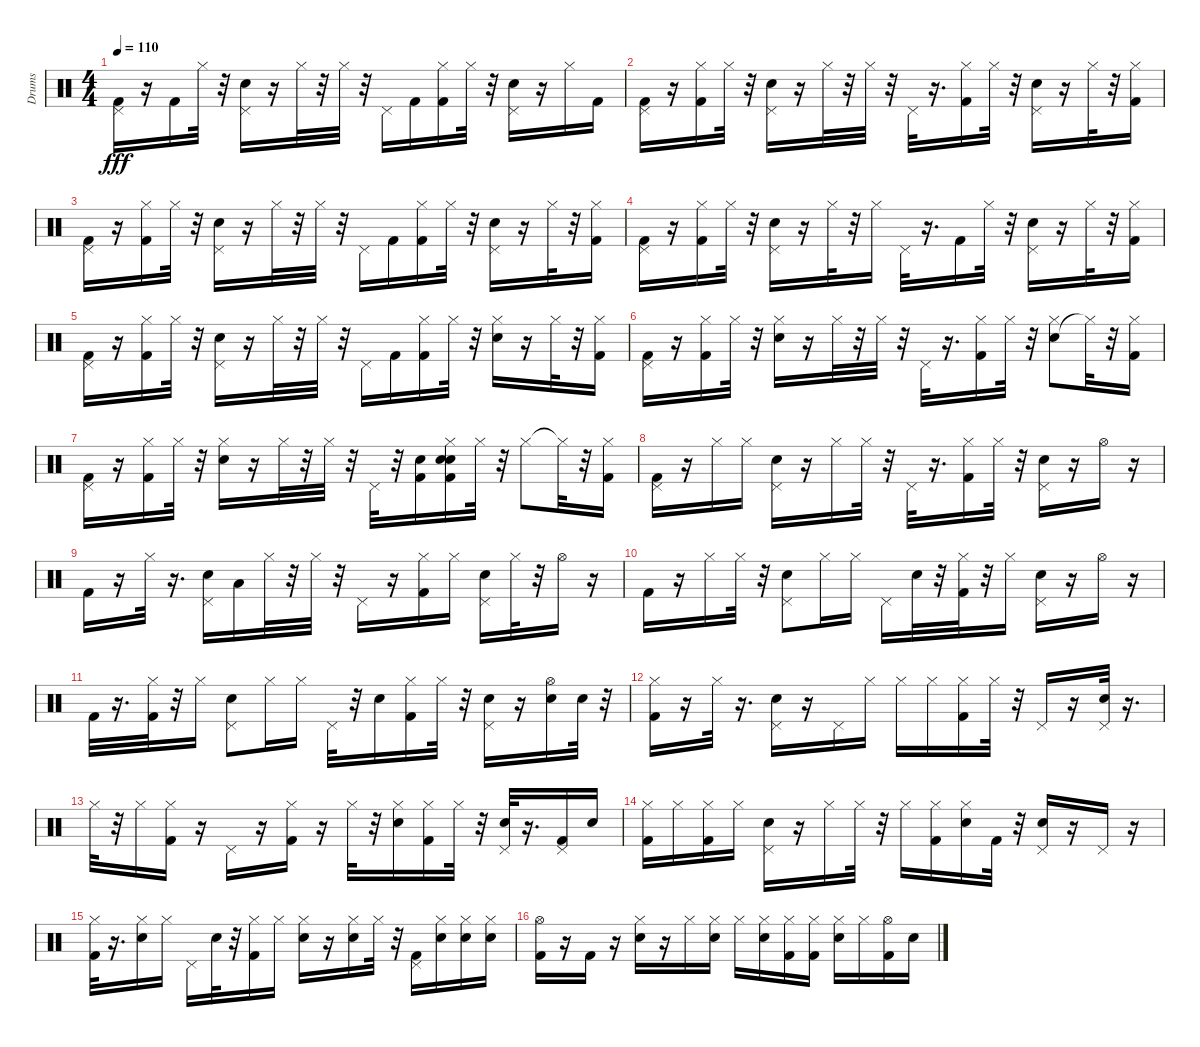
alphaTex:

\track ("Drums" "Drums") {instrument percussion}
\staff {score}
\articulation defaults
\ts (4 4)
\tempo 110
\clef neutral
\ks c
("Kick (hit) 2" "Pedal Hi-Hat (hit)").16{dy fff} r.16 "Kick (hit) 2".16 "Hi-Hat (closed)".32 r.32 ("Snare (hit) 2" "Pedal Hi-Hat (hit)").16 r.16 "Hi-Hat (closed)".32 r.32 "Hi-Hat (closed)".32 r.32 "Pedal Hi-Hat (hit)".16 "Kick (hit) 2".16 ("Kick (hit) 2" "Hi-Hat (closed)").16 "Hi-Hat (closed)".32 r.32 ("Snare (hit) 2" "Pedal Hi-Hat (hit)").16 r.16 "Hi-Hat (closed)".16 "Kick (hit) 2".16 |
("Kick (hit) 2" "Pedal Hi-Hat (hit)").16 r.16 ("Kick (hit) 2" "Hi-Hat (closed)").16 "Hi-Hat (closed)".32 r.32 ("Snare (hit) 2" "Pedal Hi-Hat (hit)").16 r.16 "Hi-Hat (closed)".32 r.32 "Hi-Hat (closed)".32 r.32 "Pedal Hi-Hat (hit)".32 r.16{d} ("Kick (hit) 2" "Hi-Hat (closed)").16 "Hi-Hat (closed)".32 r.32 ("Snare (hit) 2" "Pedal Hi-Hat (hit)").16 r.16 "Hi-Hat (closed)".32 r.32 ("Kick (hit) 2" "Hi-Hat (closed)").16 |
("Kick (hit) 2" "Pedal Hi-Hat (hit)").16 r.16 ("Kick (hit) 2" "Hi-Hat (closed)").16 "Hi-Hat (closed)".32 r.32 ("Snare (hit) 2" "Pedal Hi-Hat (hit)").16 r.16 "Hi-Hat (closed)".32 r.32 "Hi-Hat (closed)".32 r.32 "Pedal Hi-Hat (hit)".16 "Kick (hit) 2".16 ("Kick (hit) 2" "Hi-Hat (closed)").16 "Hi-Hat (closed)".32 r.32 ("Snare (hit) 2" "Pedal Hi-Hat (hit)").16 r.16 "Hi-Hat (closed)".32 r.32 ("Kick (hit) 2" "Hi-Hat (closed)").16 |
("Kick (hit) 2" "Pedal Hi-Hat (hit)").16 r.16 ("Kick (hit) 2" "Hi-Hat (closed)").16 "Hi-Hat (closed)".32 r.32 ("Snare (hit) 2" "Pedal Hi-Hat (hit)").16 r.16 "Hi-Hat (closed)".32 r.32 "Hi-Hat (closed)".16 "Pedal Hi-Hat (hit)".32 r.16{d} "Kick (hit) 2".16 "Hi-Hat (closed)".32 r.32 ("Snare (hit) 2" "Pedal Hi-Hat (hit)").16 r.16 "Hi-Hat (closed)".32 r.32 ("Kick (hit) 2" "Hi-Hat (closed)").16 |
("Kick (hit) 2" "Pedal Hi-Hat (hit)").16 r.16 ("Kick (hit) 2" "Hi-Hat (closed)").16 "Hi-Hat (closed)".32 r.32 ("Snare (hit) 2" "Pedal Hi-Hat (hit)").16 r.16 "Hi-Hat (closed)".32 r.32 "Hi-Hat (closed)".32 r.32 "Pedal Hi-Hat (hit)".16 "Kick (hit) 2".16 ("Kick (hit) 2" "Hi-Hat (closed)").16 "Hi-Hat (closed)".32 r.32 ("Snare (hit) 2" "Hi-Hat (closed)").16 r.16 "Hi-Hat (closed)".32 r.32 ("Kick (hit) 2" "Hi-Hat (closed)").16 |
("Kick (hit) 2" "Pedal Hi-Hat (hit)").16 r.16 ("Kick (hit) 2" "Hi-Hat (closed)").16 "Hi-Hat (closed)".32 r.32 ("Snare (hit) 2" "Hi-Hat (closed)").16 r.16 "Hi-Hat (closed)".32 r.32 "Hi-Hat (closed)".32 r.32 "Pedal Hi-Hat (hit)".32 r.16{d} ("Kick (hit) 2" "Hi-Hat (closed)").16 "Hi-Hat (closed)".32 r.32 ("Snare (hit) 2" "Hi-Hat (closed)").8 "Hi-Hat (closed)"{t}.32 r.32 ("Kick (hit) 2" "Hi-Hat (closed)").16 |
("Kick (hit) 2" "Pedal Hi-Hat (hit)").16 r.16 ("Kick (hit) 2" "Hi-Hat (closed)").16 "Hi-Hat (closed)".32 r.32 ("Snare (hit) 2" "Hi-Hat (closed)").16 r.16 "Hi-Hat (closed)".32 r.32 "Hi-Hat (closed)".32 r.32 "Pedal Hi-Hat (hit)".32 r.32 ("Kick (hit) 2" "Snare (hit) 2").16 ("Snare (hit) 2" "Kick (hit) 2" "Hi-Hat (closed)" "Snare (hit) 2").16 "Hi-Hat (closed)".32 r.32 "Hi-Hat (closed)".8 "Hi-Hat (closed)"{t}.32 r.32 ("Kick (hit) 2" "Hi-Hat (closed)").16 |
("Kick (hit) 2" "Pedal Hi-Hat (hit)").16 r.16 "Hi-Hat (closed)".16 "Hi-Hat (closed)".16 ("Snare (hit) 2" "Pedal Hi-Hat (hit)").16 r.16 "Hi-Hat (closed)".16 "Hi-Hat (closed)".32 r.32 "Pedal Hi-Hat (hit)".32 r.16{d} ("Kick (hit) 2" "Hi-Hat (closed)").16 "Hi-Hat (closed)".32 r.32 ("Snare (hit) 2" "Pedal Hi-Hat (hit)").16 r.16 "Hi-Hat (open)".16 r.16 |
"Kick (hit) 2".16 r.16 "Hi-Hat (closed)".32 r.16{d} ("Snare (hit) 2" "Pedal Hi-Hat (hit)").16 "Low Floor Tom (hit)".16 "Hi-Hat (closed)".32 r.32 "Hi-Hat (closed)".32 r.32 "Pedal Hi-Hat (hit)".16 r.16 ("Kick (hit) 2" "Hi-Hat (closed)").16 "Hi-Hat (closed)".16 ("Snare (hit) 2" "Pedal Hi-Hat (hit)").16 "Hi-Hat (closed)".32 r.32 "Hi-Hat (open)".16 r.16 |
"Kick (hit) 2".16 r.16 "Hi-Hat (closed)".16 "Hi-Hat (closed)".32 r.32 ("Snare (hit) 2" "Pedal Hi-Hat (hit)").8 "Hi-Hat (closed)".16 "Hi-Hat (closed)".16 "Pedal Hi-Hat (hit)".16 "Snare (hit) 2".32 r.32 ("Kick (hit) 2" "Hi-Hat (closed)").32 r.32 "Hi-Hat (closed)".16 ("Snare (hit) 2" "Pedal Hi-Hat (hit)").16 r.16 "Hi-Hat (open)".16 r.16 |
"Kick (hit) 2".32 r.16{d} ("Kick (hit) 2" "Hi-Hat (closed)").32 r.32 "Hi-Hat (closed)".16 ("Snare (hit) 2" "Pedal Hi-Hat (hit)").8 "Hi-Hat (closed)".16 "Hi-Hat (closed)".16 "Pedal Hi-Hat (hit)".32 r.32 "Snare (hit) 2".16 ("Kick (hit) 2" "Hi-Hat (closed)").16 "Hi-Hat (closed)".32 r.32 ("Snare (hit) 2" "Pedal Hi-Hat (hit)").16 r.16 ("Snare (hit) 2" "Hi-Hat (open)").16 "Snare (hit) 2".32 r.32 |
("Kick (hit) 2" "Hi-Hat (closed)").16 r.16 "Hi-Hat (closed)".32 r.16{d} ("Snare (hit) 2" "Pedal Hi-Hat (hit)").16 r.16 "Pedal Hi-Hat (hit)".16 "Hi-Hat (closed)".16 "Hi-Hat (closed)".16 "Hi-Hat (closed)".16 ("Kick (hit) 2" "Hi-Hat (closed)").16 "Hi-Hat (closed)".32 r.32 "Pedal Hi-Hat (hit)".16 r.16 ("Snare (hit) 2" "Pedal Hi-Hat (hit)").32 r.16{d} |
"Hi-Hat (closed)".32 r.32 "Hi-Hat (closed)".16 ("Kick (hit) 2" "Hi-Hat (closed)").16 r.16 "Pedal Hi-Hat (hit)".16 r.16 ("Kick (hit) 2" "Hi-Hat (closed)").16 r.16 "Hi-Hat (closed)".32 r.32 ("Snare (hit) 2" "Hi-Hat (closed)").16 ("Kick (hit) 2" "Hi-Hat (closed)").16 "Hi-Hat (closed)".32 r.32 ("Snare (hit) 2" "Pedal Hi-Hat (hit)").32 r.16{d} ("Kick (hit) 2" "Pedal Hi-Hat (hit)").16 "Snare (hit) 2".16 |
("Kick (hit) 2" "Hi-Hat (closed)").16 "Hi-Hat (closed)".16 ("Kick (hit) 2" "Hi-Hat (closed)").16 "Hi-Hat (closed)".16 ("Snare (hit) 2" "Pedal Hi-Hat (hit)").16 r.16 "Hi-Hat (closed)".16 "Hi-Hat (closed)".32 r.32 "Hi-Hat (closed)".16 ("Kick (hit) 2" "Hi-Hat (closed)").16 ("Snare (hit) 2" "Hi-Hat (closed)").16 "Kick (hit) 2".32 r.32 ("Snare (hit) 2" "Pedal Hi-Hat (hit)").16 r.16 "Pedal Hi-Hat (hit)".16 r.16 |
("Kick (hit) 2" "Hi-Hat (closed)").32 r.16{d} ("Snare (hit) 2" "Hi-Hat (closed)").16 "Hi-Hat (closed)".16 "Pedal Hi-Hat (hit)".16 "Snare (hit) 2".32 r.32 ("Kick (hit) 2" "Hi-Hat (closed)").16 "Hi-Hat (closed)".16 ("Snare (hit) 2" "Hi-Hat (closed)").16 r.16 ("Snare (hit) 2" "Hi-Hat (closed)").16 "Hi-Hat (closed)".32 r.32 ("Kick (hit) 2" "Pedal Hi-Hat (hit)").16 ("Snare (hit) 2" "Hi-Hat (closed)").16 ("Snare (hit) 2" "Hi-Hat (closed)").16 ("Snare (hit) 2" "Hi-Hat (closed)").16 |
("Kick (hit) 2" "Hi-Hat (open)").16 r.16 "Kick (hit) 2".16 r.16 ("Snare (hit) 2" "Hi-Hat (closed)").16 r.16 "Hi-Hat (closed)".16 ("Snare (hit) 2" "Hi-Hat (closed)").16 "Hi-Hat (closed)".16 ("Snare (hit) 2" "Hi-Hat (closed)").16 ("Kick (hit) 2" "Hi-Hat (closed)").16 ("Kick (hit) 2" "Hi-Hat (closed)").16 ("Snare (hit) 2" "Hi-Hat (closed)").16 "Hi-Hat (closed)".16 ("Kick (hit) 2" "Hi-Hat (open)").16 "Snare (hit) 2".16
